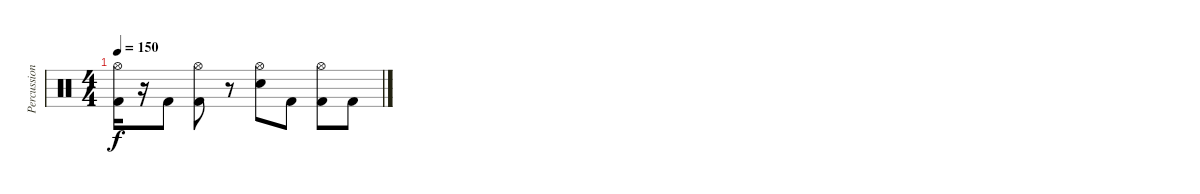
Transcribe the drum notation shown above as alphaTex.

\track ("Percussion" "Percussion") {instrument percussion}
\staff {score}
\articulation defaults
\ts (4 4)
\tempo 150
\clef neutral
\ks c
("Hi-Hat (open)" "Kick (hit) 2").16{dy f} r.16 "Kick (hit) 2".8 ("Hi-Hat (open)" "Kick (hit) 2").8 r.8 ("Hi-Hat (open)" "Electric Snare (hit)").8 "Kick (hit) 2".8 ("Hi-Hat (open)" "Kick (hit) 2").8 "Kick (hit) 2".8
